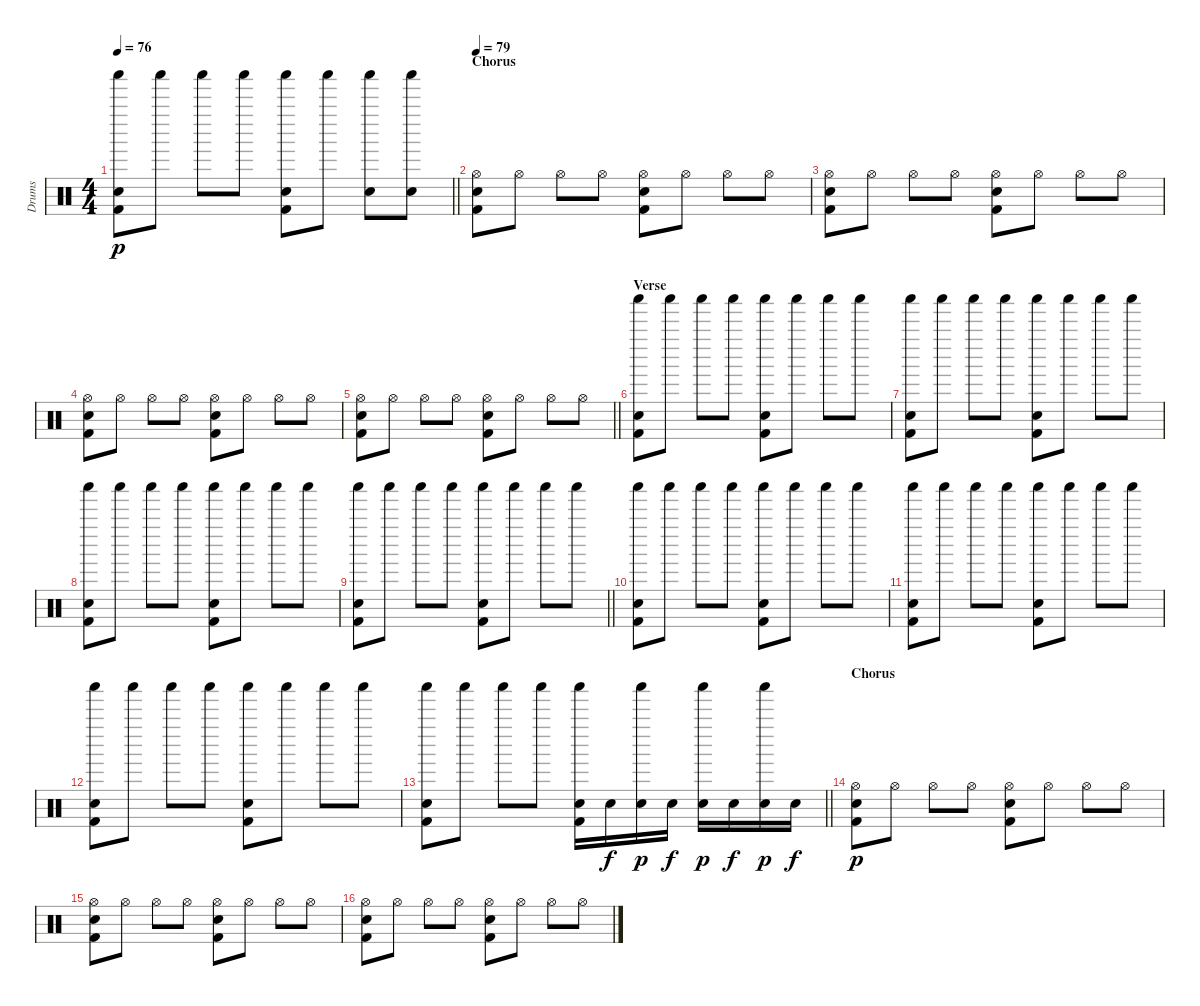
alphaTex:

\track ("Drums" "Drums") {instrument percussion}
\staff
\articulation defaults
\ts (4 4)
\tempo 76
\clef neutral
\barLineRight lightlight
\ks c
("Shaker (hit)" "Electric Snare (hit)" "Kick (hit) 2").8{dy p} "Shaker (hit)".8 "Shaker (hit)".8 "Shaker (hit)".8 ("Shaker (hit)" "Electric Snare (hit)" "Kick (hit) 2").8 "Shaker (hit)".8 ("Shaker (hit)" "Electric Snare (hit)").8 ("Shaker (hit)" "Electric Snare (hit)").8 |
\section ("" "Chorus")
\tempo 79
("Hi-Hat (open)" "Electric Snare (hit)" "Kick (hit) 2").8 "Hi-Hat (open)".8 "Hi-Hat (open)".8 "Hi-Hat (open)".8 ("Hi-Hat (open)" "Electric Snare (hit)" "Kick (hit) 2").8 "Hi-Hat (open)".8 "Hi-Hat (open)".8 "Hi-Hat (open)".8 |
("Hi-Hat (open)" "Electric Snare (hit)" "Kick (hit) 2").8 "Hi-Hat (open)".8 "Hi-Hat (open)".8 "Hi-Hat (open)".8 ("Hi-Hat (open)" "Electric Snare (hit)" "Kick (hit) 2").8 "Hi-Hat (open)".8 "Hi-Hat (open)".8 "Hi-Hat (open)".8 |
("Hi-Hat (open)" "Electric Snare (hit)" "Kick (hit) 2").8 "Hi-Hat (open)".8 "Hi-Hat (open)".8 "Hi-Hat (open)".8 ("Hi-Hat (open)" "Electric Snare (hit)" "Kick (hit) 2").8 "Hi-Hat (open)".8 "Hi-Hat (open)".8 "Hi-Hat (open)".8 |
\barLineRight lightlight
("Hi-Hat (open)" "Electric Snare (hit)" "Kick (hit) 2").8 "Hi-Hat (open)".8 "Hi-Hat (open)".8 "Hi-Hat (open)".8 ("Hi-Hat (open)" "Electric Snare (hit)" "Kick (hit) 2").8 "Hi-Hat (open)".8 "Hi-Hat (open)".8 "Hi-Hat (open)".8 |
\section ("" "Verse")
("Shaker (hit)" "Electric Snare (hit)" "Kick (hit) 2").8 "Shaker (hit)".8 "Shaker (hit)".8 "Shaker (hit)".8 ("Shaker (hit)" "Electric Snare (hit)" "Kick (hit) 2").8 "Shaker (hit)".8 "Shaker (hit)".8 "Shaker (hit)".8 |
("Shaker (hit)" "Electric Snare (hit)" "Kick (hit) 2").8 "Shaker (hit)".8 "Shaker (hit)".8 "Shaker (hit)".8 ("Shaker (hit)" "Electric Snare (hit)" "Kick (hit) 2").8 "Shaker (hit)".8 "Shaker (hit)".8 "Shaker (hit)".8 |
("Shaker (hit)" "Electric Snare (hit)" "Kick (hit) 2").8 "Shaker (hit)".8 "Shaker (hit)".8 "Shaker (hit)".8 ("Shaker (hit)" "Electric Snare (hit)" "Kick (hit) 2").8 "Shaker (hit)".8 "Shaker (hit)".8 "Shaker (hit)".8 |
\barLineRight lightlight
("Shaker (hit)" "Electric Snare (hit)" "Kick (hit) 2").8 "Shaker (hit)".8 "Shaker (hit)".8 "Shaker (hit)".8 ("Shaker (hit)" "Electric Snare (hit)" "Kick (hit) 2").8 "Shaker (hit)".8 "Shaker (hit)".8 "Shaker (hit)".8 |
("Shaker (hit)" "Electric Snare (hit)" "Kick (hit) 2").8 "Shaker (hit)".8 "Shaker (hit)".8 "Shaker (hit)".8 ("Shaker (hit)" "Electric Snare (hit)" "Kick (hit) 2").8 "Shaker (hit)".8 "Shaker (hit)".8 "Shaker (hit)".8 |
("Shaker (hit)" "Electric Snare (hit)" "Kick (hit) 2").8 "Shaker (hit)".8 "Shaker (hit)".8 "Shaker (hit)".8 ("Shaker (hit)" "Electric Snare (hit)" "Kick (hit) 2").8 "Shaker (hit)".8 "Shaker (hit)".8 "Shaker (hit)".8 |
("Shaker (hit)" "Electric Snare (hit)" "Kick (hit) 2").8 "Shaker (hit)".8 "Shaker (hit)".8 "Shaker (hit)".8 ("Shaker (hit)" "Electric Snare (hit)" "Kick (hit) 2").8 "Shaker (hit)".8 "Shaker (hit)".8 "Shaker (hit)".8 |
\barLineRight lightlight
("Shaker (hit)" "Electric Snare (hit)" "Kick (hit) 2").8 "Shaker (hit)".8 "Shaker (hit)".8 "Shaker (hit)".8 ("Shaker (hit)" "Electric Snare (hit)" "Kick (hit) 2").16 "Electric Snare (hit)".16{dy f} ("Shaker (hit)" "Electric Snare (hit)").16{dy p} "Electric Snare (hit)".16{dy f} ("Shaker (hit)" "Electric Snare (hit)").16{dy p} "Electric Snare (hit)".16{dy f} ("Shaker (hit)" "Electric Snare (hit)").16{dy p} "Electric Snare (hit)".16{dy f} |
\section ("" "Chorus")
("Hi-Hat (open)" "Electric Snare (hit)" "Kick (hit) 2").8{dy p} "Hi-Hat (open)".8 "Hi-Hat (open)".8 "Hi-Hat (open)".8 ("Hi-Hat (open)" "Electric Snare (hit)" "Kick (hit) 2").8 "Hi-Hat (open)".8 "Hi-Hat (open)".8 "Hi-Hat (open)".8 |
("Hi-Hat (open)" "Electric Snare (hit)" "Kick (hit) 2").8 "Hi-Hat (open)".8 "Hi-Hat (open)".8 "Hi-Hat (open)".8 ("Hi-Hat (open)" "Electric Snare (hit)" "Kick (hit) 2").8 "Hi-Hat (open)".8 "Hi-Hat (open)".8 "Hi-Hat (open)".8 |
("Hi-Hat (open)" "Electric Snare (hit)" "Kick (hit) 2").8 "Hi-Hat (open)".8 "Hi-Hat (open)".8 "Hi-Hat (open)".8 ("Hi-Hat (open)" "Electric Snare (hit)" "Kick (hit) 2").8 "Hi-Hat (open)".8 "Hi-Hat (open)".8 "Hi-Hat (open)".8
